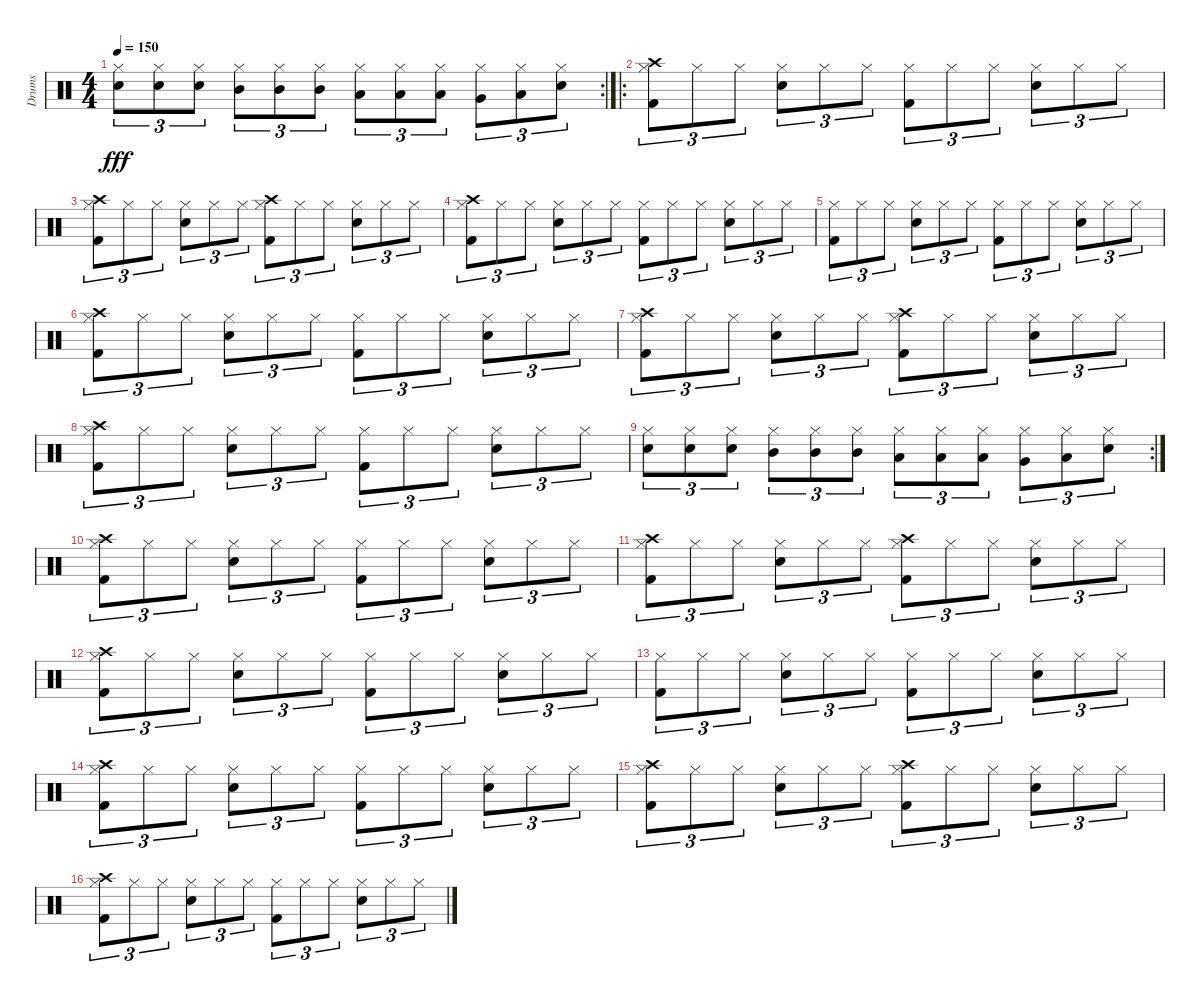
\track ("Drums" "Drums") {instrument percussion}
\staff {score}
\articulation defaults
\rc 2
\ts (4 4)
\tempo 150
\clef neutral
\ks c
("Snare (hit) 2" "Hi-Hat (closed)").8{tu (3 2) dy fff} ("Snare (hit) 2" "Hi-Hat (closed)").8{tu (3 2)} ("Snare (hit) 2" "Hi-Hat (closed)").8{tu (3 2)} ("Mid Tom (hit)" "Hi-Hat (closed)").8{tu (3 2)} ("Mid Tom (hit)" "Hi-Hat (closed)").8{tu (3 2)} ("Mid Tom (hit)" "Hi-Hat (closed)").8{tu (3 2)} ("Low Tom (hit)" "Hi-Hat (closed)").8{tu (3 2)} ("Low Tom (hit)" "Hi-Hat (closed)").8{tu (3 2)} ("Low Tom (hit)" "Hi-Hat (closed)").8{tu (3 2)} ("Very Low Tom (hit)" "Hi-Hat (closed)").8{tu (3 2)} ("Low Floor Tom (hit)" "Hi-Hat (closed)").8{tu (3 2)} ("Electric Snare (hit)" "Hi-Hat (closed)").8{tu (3 2)} |
\ro
("Hi-Hat (closed)" "Kick (hit) 2" "Crash high (hit)").8{tu (3 2)} "Hi-Hat (closed)".8{tu (3 2)} "Hi-Hat (closed)".8{tu (3 2)} ("Hi-Hat (closed)" "Snare (hit) 2").8{tu (3 2)} "Hi-Hat (closed)".8{tu (3 2)} "Hi-Hat (closed)".8{tu (3 2)} ("Hi-Hat (closed)" "Kick (hit) 2").8{tu (3 2)} "Hi-Hat (closed)".8{tu (3 2)} "Hi-Hat (closed)".8{tu (3 2)} ("Hi-Hat (closed)" "Snare (hit) 2").8{tu (3 2)} "Hi-Hat (closed)".8{tu (3 2)} "Hi-Hat (closed)".8{tu (3 2)} |
("Hi-Hat (closed)" "Kick (hit) 2" "Crash high (hit)").8{tu (3 2)} "Hi-Hat (closed)".8{tu (3 2)} "Hi-Hat (closed)".8{tu (3 2)} ("Hi-Hat (closed)" "Snare (hit) 2").8{tu (3 2)} "Hi-Hat (closed)".8{tu (3 2)} "Hi-Hat (closed)".8{tu (3 2)} ("Hi-Hat (closed)" "Kick (hit) 2" "Crash high (hit)").8{tu (3 2)} "Hi-Hat (closed)".8{tu (3 2)} "Hi-Hat (closed)".8{tu (3 2)} ("Hi-Hat (closed)" "Snare (hit) 2").8{tu (3 2)} "Hi-Hat (closed)".8{tu (3 2)} "Hi-Hat (closed)".8{tu (3 2)} |
("Hi-Hat (closed)" "Kick (hit) 2" "Crash high (hit)").8{tu (3 2)} "Hi-Hat (closed)".8{tu (3 2)} "Hi-Hat (closed)".8{tu (3 2)} ("Hi-Hat (closed)" "Snare (hit) 2").8{tu (3 2)} "Hi-Hat (closed)".8{tu (3 2)} "Hi-Hat (closed)".8{tu (3 2)} ("Hi-Hat (closed)" "Kick (hit) 2").8{tu (3 2)} "Hi-Hat (closed)".8{tu (3 2)} "Hi-Hat (closed)".8{tu (3 2)} ("Hi-Hat (closed)" "Snare (hit) 2").8{tu (3 2)} "Hi-Hat (closed)".8{tu (3 2)} "Hi-Hat (closed)".8{tu (3 2)} |
("Hi-Hat (closed)" "Kick (hit) 2").8{tu (3 2)} "Hi-Hat (closed)".8{tu (3 2)} "Hi-Hat (closed)".8{tu (3 2)} ("Hi-Hat (closed)" "Snare (hit) 2").8{tu (3 2)} "Hi-Hat (closed)".8{tu (3 2)} "Hi-Hat (closed)".8{tu (3 2)} ("Hi-Hat (closed)" "Kick (hit) 2").8{tu (3 2)} "Hi-Hat (closed)".8{tu (3 2)} "Hi-Hat (closed)".8{tu (3 2)} ("Hi-Hat (closed)" "Snare (hit) 2").8{tu (3 2)} "Hi-Hat (closed)".8{tu (3 2)} "Hi-Hat (closed)".8{tu (3 2)} |
("Hi-Hat (closed)" "Kick (hit) 2" "Crash high (hit)").8{tu (3 2)} "Hi-Hat (closed)".8{tu (3 2)} "Hi-Hat (closed)".8{tu (3 2)} ("Hi-Hat (closed)" "Snare (hit) 2").8{tu (3 2)} "Hi-Hat (closed)".8{tu (3 2)} "Hi-Hat (closed)".8{tu (3 2)} ("Hi-Hat (closed)" "Kick (hit) 2").8{tu (3 2)} "Hi-Hat (closed)".8{tu (3 2)} "Hi-Hat (closed)".8{tu (3 2)} ("Hi-Hat (closed)" "Snare (hit) 2").8{tu (3 2)} "Hi-Hat (closed)".8{tu (3 2)} "Hi-Hat (closed)".8{tu (3 2)} |
("Hi-Hat (closed)" "Kick (hit) 2" "Crash high (hit)").8{tu (3 2)} "Hi-Hat (closed)".8{tu (3 2)} "Hi-Hat (closed)".8{tu (3 2)} ("Hi-Hat (closed)" "Snare (hit) 2").8{tu (3 2)} "Hi-Hat (closed)".8{tu (3 2)} "Hi-Hat (closed)".8{tu (3 2)} ("Hi-Hat (closed)" "Kick (hit) 2" "Crash high (hit)").8{tu (3 2)} "Hi-Hat (closed)".8{tu (3 2)} "Hi-Hat (closed)".8{tu (3 2)} ("Hi-Hat (closed)" "Snare (hit) 2").8{tu (3 2)} "Hi-Hat (closed)".8{tu (3 2)} "Hi-Hat (closed)".8{tu (3 2)} |
("Hi-Hat (closed)" "Kick (hit) 2" "Crash high (hit)").8{tu (3 2)} "Hi-Hat (closed)".8{tu (3 2)} "Hi-Hat (closed)".8{tu (3 2)} ("Hi-Hat (closed)" "Snare (hit) 2").8{tu (3 2)} "Hi-Hat (closed)".8{tu (3 2)} "Hi-Hat (closed)".8{tu (3 2)} ("Hi-Hat (closed)" "Kick (hit) 2").8{tu (3 2)} "Hi-Hat (closed)".8{tu (3 2)} "Hi-Hat (closed)".8{tu (3 2)} ("Hi-Hat (closed)" "Snare (hit) 2").8{tu (3 2)} "Hi-Hat (closed)".8{tu (3 2)} "Hi-Hat (closed)".8{tu (3 2)} |
\rc 2
("Snare (hit) 2" "Hi-Hat (closed)").8{tu (3 2)} ("Snare (hit) 2" "Hi-Hat (closed)").8{tu (3 2)} ("Snare (hit) 2" "Hi-Hat (closed)").8{tu (3 2)} ("Mid Tom (hit)" "Hi-Hat (closed)").8{tu (3 2)} ("Mid Tom (hit)" "Hi-Hat (closed)").8{tu (3 2)} ("Mid Tom (hit)" "Hi-Hat (closed)").8{tu (3 2)} ("Low Tom (hit)" "Hi-Hat (closed)").8{tu (3 2)} ("Low Tom (hit)" "Hi-Hat (closed)").8{tu (3 2)} ("Low Tom (hit)" "Hi-Hat (closed)").8{tu (3 2)} ("Very Low Tom (hit)" "Hi-Hat (closed)").8{tu (3 2)} ("Low Floor Tom (hit)" "Hi-Hat (closed)").8{tu (3 2)} ("Electric Snare (hit)" "Hi-Hat (closed)").8{tu (3 2)} |
("Hi-Hat (closed)" "Kick (hit) 2" "Crash high (hit)").8{tu (3 2)} "Hi-Hat (closed)".8{tu (3 2)} "Hi-Hat (closed)".8{tu (3 2)} ("Hi-Hat (closed)" "Snare (hit) 2").8{tu (3 2)} "Hi-Hat (closed)".8{tu (3 2)} "Hi-Hat (closed)".8{tu (3 2)} ("Hi-Hat (closed)" "Kick (hit) 2").8{tu (3 2)} "Hi-Hat (closed)".8{tu (3 2)} "Hi-Hat (closed)".8{tu (3 2)} ("Hi-Hat (closed)" "Snare (hit) 2").8{tu (3 2)} "Hi-Hat (closed)".8{tu (3 2)} "Hi-Hat (closed)".8{tu (3 2)} |
("Hi-Hat (closed)" "Kick (hit) 2" "Crash high (hit)").8{tu (3 2)} "Hi-Hat (closed)".8{tu (3 2)} "Hi-Hat (closed)".8{tu (3 2)} ("Hi-Hat (closed)" "Snare (hit) 2").8{tu (3 2)} "Hi-Hat (closed)".8{tu (3 2)} "Hi-Hat (closed)".8{tu (3 2)} ("Hi-Hat (closed)" "Kick (hit) 2" "Crash high (hit)").8{tu (3 2)} "Hi-Hat (closed)".8{tu (3 2)} "Hi-Hat (closed)".8{tu (3 2)} ("Hi-Hat (closed)" "Snare (hit) 2").8{tu (3 2)} "Hi-Hat (closed)".8{tu (3 2)} "Hi-Hat (closed)".8{tu (3 2)} |
("Hi-Hat (closed)" "Kick (hit) 2" "Crash high (hit)").8{tu (3 2)} "Hi-Hat (closed)".8{tu (3 2)} "Hi-Hat (closed)".8{tu (3 2)} ("Hi-Hat (closed)" "Snare (hit) 2").8{tu (3 2)} "Hi-Hat (closed)".8{tu (3 2)} "Hi-Hat (closed)".8{tu (3 2)} ("Hi-Hat (closed)" "Kick (hit) 2").8{tu (3 2)} "Hi-Hat (closed)".8{tu (3 2)} "Hi-Hat (closed)".8{tu (3 2)} ("Hi-Hat (closed)" "Snare (hit) 2").8{tu (3 2)} "Hi-Hat (closed)".8{tu (3 2)} "Hi-Hat (closed)".8{tu (3 2)} |
("Hi-Hat (closed)" "Kick (hit) 2").8{tu (3 2)} "Hi-Hat (closed)".8{tu (3 2)} "Hi-Hat (closed)".8{tu (3 2)} ("Hi-Hat (closed)" "Snare (hit) 2").8{tu (3 2)} "Hi-Hat (closed)".8{tu (3 2)} "Hi-Hat (closed)".8{tu (3 2)} ("Hi-Hat (closed)" "Kick (hit) 2").8{tu (3 2)} "Hi-Hat (closed)".8{tu (3 2)} "Hi-Hat (closed)".8{tu (3 2)} ("Hi-Hat (closed)" "Snare (hit) 2").8{tu (3 2)} "Hi-Hat (closed)".8{tu (3 2)} "Hi-Hat (closed)".8{tu (3 2)} |
("Hi-Hat (closed)" "Kick (hit) 2" "Crash high (hit)").8{tu (3 2)} "Hi-Hat (closed)".8{tu (3 2)} "Hi-Hat (closed)".8{tu (3 2)} ("Hi-Hat (closed)" "Snare (hit) 2").8{tu (3 2)} "Hi-Hat (closed)".8{tu (3 2)} "Hi-Hat (closed)".8{tu (3 2)} ("Hi-Hat (closed)" "Kick (hit) 2").8{tu (3 2)} "Hi-Hat (closed)".8{tu (3 2)} "Hi-Hat (closed)".8{tu (3 2)} ("Hi-Hat (closed)" "Snare (hit) 2").8{tu (3 2)} "Hi-Hat (closed)".8{tu (3 2)} "Hi-Hat (closed)".8{tu (3 2)} |
("Hi-Hat (closed)" "Kick (hit) 2" "Crash high (hit)").8{tu (3 2)} "Hi-Hat (closed)".8{tu (3 2)} "Hi-Hat (closed)".8{tu (3 2)} ("Hi-Hat (closed)" "Snare (hit) 2").8{tu (3 2)} "Hi-Hat (closed)".8{tu (3 2)} "Hi-Hat (closed)".8{tu (3 2)} ("Hi-Hat (closed)" "Kick (hit) 2" "Crash high (hit)").8{tu (3 2)} "Hi-Hat (closed)".8{tu (3 2)} "Hi-Hat (closed)".8{tu (3 2)} ("Hi-Hat (closed)" "Snare (hit) 2").8{tu (3 2)} "Hi-Hat (closed)".8{tu (3 2)} "Hi-Hat (closed)".8{tu (3 2)} |
("Hi-Hat (closed)" "Kick (hit) 2" "Crash high (hit)").8{tu (3 2)} "Hi-Hat (closed)".8{tu (3 2)} "Hi-Hat (closed)".8{tu (3 2)} ("Hi-Hat (closed)" "Snare (hit) 2").8{tu (3 2)} "Hi-Hat (closed)".8{tu (3 2)} "Hi-Hat (closed)".8{tu (3 2)} ("Hi-Hat (closed)" "Kick (hit) 2").8{tu (3 2)} "Hi-Hat (closed)".8{tu (3 2)} "Hi-Hat (closed)".8{tu (3 2)} ("Hi-Hat (closed)" "Snare (hit) 2").8{tu (3 2)} "Hi-Hat (closed)".8{tu (3 2)} "Hi-Hat (closed)".8{tu (3 2)}
